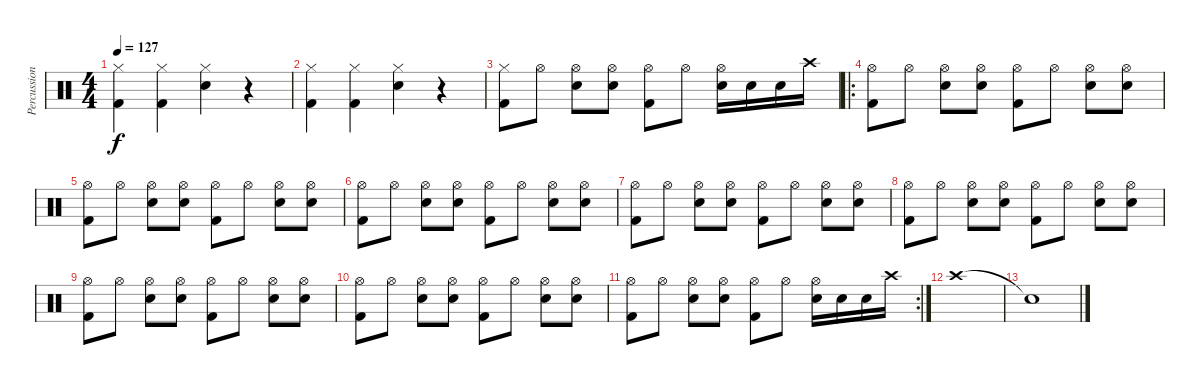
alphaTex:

\track ("Percussion" "Percussion") {instrument percussion}
\staff {score}
\articulation defaults
\ts (4 4)
\tempo 127
\clef neutral
\ks c
("Hi-Hat (closed)" "Kick (hit) 2").4{dy f} ("Hi-Hat (closed)" "Kick (hit) 2").4 ("Hi-Hat (closed)" "Electric Snare (hit)").4 r.4 |
("Hi-Hat (closed)" "Kick (hit) 2").4 ("Hi-Hat (closed)" "Kick (hit) 2").4 ("Hi-Hat (closed)" "Electric Snare (hit)").4 r.4 |
("Hi-Hat (closed)" "Kick (hit) 2").8 "Hi-Hat (open)".8 ("Hi-Hat (open)" "Electric Snare (hit)").8 ("Hi-Hat (open)" "Electric Snare (hit)").8 ("Hi-Hat (open)" "Kick (hit) 2").8 "Hi-Hat (open)".8 ("Hi-Hat (open)" "Electric Snare (hit)").16 "Electric Snare (hit)".16 "Electric Snare (hit)".16 "Crash high (hit)".16 |
\ro
("Hi-Hat (open)" "Kick (hit) 2").8 "Hi-Hat (open)".8 ("Hi-Hat (open)" "Electric Snare (hit)").8 ("Hi-Hat (open)" "Electric Snare (hit)").8 ("Hi-Hat (open)" "Kick (hit) 2").8 "Hi-Hat (open)".8 ("Hi-Hat (open)" "Electric Snare (hit)").8 ("Hi-Hat (open)" "Electric Snare (hit)").8 |
("Hi-Hat (open)" "Kick (hit) 2").8 "Hi-Hat (open)".8 ("Hi-Hat (open)" "Electric Snare (hit)").8 ("Hi-Hat (open)" "Electric Snare (hit)").8 ("Hi-Hat (open)" "Kick (hit) 2").8 "Hi-Hat (open)".8 ("Hi-Hat (open)" "Electric Snare (hit)").8 ("Hi-Hat (open)" "Electric Snare (hit)").8 |
("Hi-Hat (open)" "Kick (hit) 2").8 "Hi-Hat (open)".8 ("Hi-Hat (open)" "Electric Snare (hit)").8 ("Hi-Hat (open)" "Electric Snare (hit)").8 ("Hi-Hat (open)" "Kick (hit) 2").8 "Hi-Hat (open)".8 ("Hi-Hat (open)" "Electric Snare (hit)").8 ("Hi-Hat (open)" "Electric Snare (hit)").8 |
("Hi-Hat (open)" "Kick (hit) 2").8 "Hi-Hat (open)".8 ("Hi-Hat (open)" "Electric Snare (hit)").8 ("Hi-Hat (open)" "Electric Snare (hit)").8 ("Hi-Hat (open)" "Kick (hit) 2").8 "Hi-Hat (open)".8 ("Hi-Hat (open)" "Electric Snare (hit)").8 ("Hi-Hat (open)" "Electric Snare (hit)").8 |
("Hi-Hat (open)" "Kick (hit) 2").8 "Hi-Hat (open)".8 ("Hi-Hat (open)" "Electric Snare (hit)").8 ("Hi-Hat (open)" "Electric Snare (hit)").8 ("Hi-Hat (open)" "Kick (hit) 2").8 "Hi-Hat (open)".8 ("Hi-Hat (open)" "Electric Snare (hit)").8 ("Hi-Hat (open)" "Electric Snare (hit)").8 |
("Hi-Hat (open)" "Kick (hit) 2").8 "Hi-Hat (open)".8 ("Hi-Hat (open)" "Electric Snare (hit)").8 ("Hi-Hat (open)" "Electric Snare (hit)").8 ("Hi-Hat (open)" "Kick (hit) 2").8 "Hi-Hat (open)".8 ("Hi-Hat (open)" "Electric Snare (hit)").8 ("Hi-Hat (open)" "Electric Snare (hit)").8 |
("Hi-Hat (open)" "Kick (hit) 2").8 "Hi-Hat (open)".8 ("Hi-Hat (open)" "Electric Snare (hit)").8 ("Hi-Hat (open)" "Electric Snare (hit)").8 ("Hi-Hat (open)" "Kick (hit) 2").8 "Hi-Hat (open)".8 ("Hi-Hat (open)" "Electric Snare (hit)").8 ("Hi-Hat (open)" "Electric Snare (hit)").8 |
\rc 2
("Hi-Hat (open)" "Kick (hit) 2").8 "Hi-Hat (open)".8 ("Hi-Hat (open)" "Electric Snare (hit)").8 ("Hi-Hat (open)" "Electric Snare (hit)").8 ("Hi-Hat (open)" "Kick (hit) 2").8 "Hi-Hat (open)".8 ("Hi-Hat (open)" "Electric Snare (hit)").16 "Electric Snare (hit)".16 "Electric Snare (hit)".16 "Crash high (hit)".16 |
"Crash high (hit)".1 |
"Snare (hit)"{t}.1
